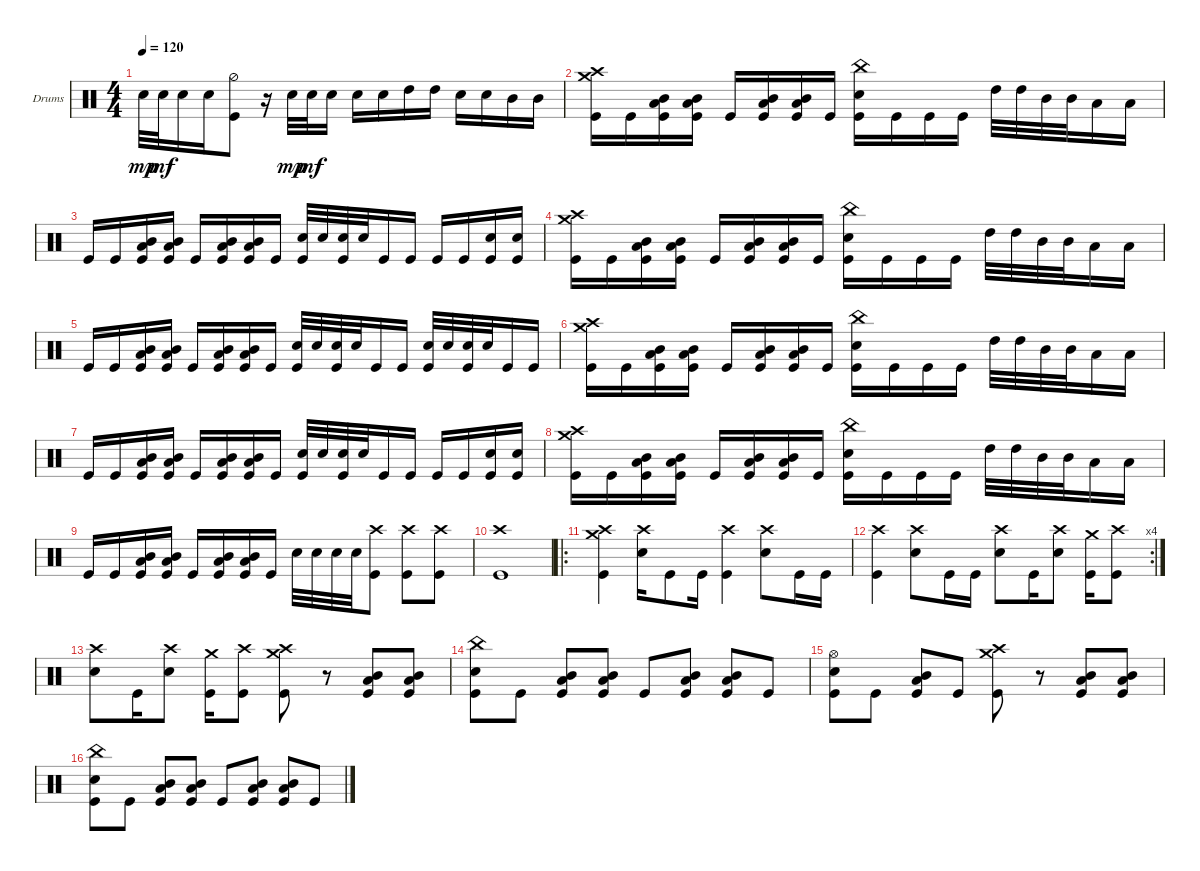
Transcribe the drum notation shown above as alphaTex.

\defaultSystemsLayout 4
\bracketExtendMode groupsimilarinstruments
\firstSystemTrackNameOrientation horizontal
\otherSystemsTrackNameOrientation horizontal
\track ("Drumkit" "Drums") {instrument percussion}
\staff {score}
\articulation defaults
\ts (4 4)
\tempo 120
\clef neutral
\ks c "Snare (hit) 2".32{dy mp} "Snare (hit) 2".32{dy mf} "Snare (hit) 2".16 "Snare (hit) 2".16
("Kick (hit)" "Hi-Hat (half)").8 r.16 "Snare (hit) 2".32{dy mp} "Snare (hit) 2".32{dy mf} "Snare (hit) 2".16 "Snare (hit) 2".16 "Snare (hit) 2".16 "High Tom (hit)".16 "High Tom (hit)".16 "Snare (hit) 2".16 "Snare (hit) 2".16 "Mid Tom (hit)".16 "Mid Tom (hit)".16 |
("Crash high (hit)" "Crash medium (hit)" "Kick (hit)").16 "Kick (hit)".16 ("Kick (hit)" "Mid Tom (hit)" "Low Tom (hit)").16 ("Kick (hit)" "Mid Tom (hit)" "Low Tom (hit)").16 "Kick (hit)".16 ("Kick (hit)" "Mid Tom (hit)" "Low Tom (hit)").16 ("Kick (hit)" "Mid Tom (hit)" "Low Tom (hit)").16 "Kick (hit)".16 ("Kick (hit)" "China (hit)" "Snare (hit) 2").16 "Kick (hit)".16 "Kick (hit)".16 "Kick (hit)".16 "High Tom (hit)".32 "High Tom (hit)".32 "Mid Tom (hit)".32 "Mid Tom (hit)".32 "Low Tom (hit)".16 "Low Tom (hit)".16 |
"Kick (hit)".16 "Kick (hit)".16 ("Kick (hit)" "Mid Tom (hit)" "Low Tom (hit)").16 ("Kick (hit)" "Mid Tom (hit)" "Low Tom (hit)").16 "Kick (hit)".16 ("Kick (hit)" "Mid Tom (hit)" "Low Tom (hit)").16 ("Kick (hit)" "Mid Tom (hit)" "Low Tom (hit)").16 "Kick (hit)".16 ("Snare (hit) 2" "Kick (hit)").32 "Snare (hit) 2".32 ("Snare (hit) 2" "Kick (hit)").32 "Snare (hit) 2".32 "Kick (hit)".16 "Kick (hit)".16 "Kick (hit)".16 "Kick (hit)".16 ("Kick (hit)" "Snare (hit) 2").16 ("Kick (hit)" "Snare (hit) 2").16 |
("Crash high (hit)" "Crash medium (hit)" "Kick (hit)").16 "Kick (hit)".16 ("Kick (hit)" "Mid Tom (hit)" "Low Tom (hit)").16 ("Kick (hit)" "Mid Tom (hit)" "Low Tom (hit)").16 "Kick (hit)".16 ("Kick (hit)" "Mid Tom (hit)" "Low Tom (hit)").16 ("Kick (hit)" "Mid Tom (hit)" "Low Tom (hit)").16 "Kick (hit)".16 ("Kick (hit)" "China (hit)" "Snare (hit) 2").16 "Kick (hit)".16 "Kick (hit)".16 "Kick (hit)".16 "High Tom (hit)".32 "High Tom (hit)".32 "Mid Tom (hit)".32 "Mid Tom (hit)".32 "Low Tom (hit)".16 "Low Tom (hit)".16 |
"Kick (hit)".16 "Kick (hit)".16 ("Kick (hit)" "Mid Tom (hit)" "Low Tom (hit)").16 ("Kick (hit)" "Mid Tom (hit)" "Low Tom (hit)").16 "Kick (hit)".16 ("Kick (hit)" "Mid Tom (hit)" "Low Tom (hit)").16 ("Kick (hit)" "Mid Tom (hit)" "Low Tom (hit)").16 "Kick (hit)".16 ("Snare (hit) 2" "Kick (hit)").32 "Snare (hit) 2".32 ("Snare (hit) 2" "Kick (hit)").32 "Snare (hit) 2".32 "Kick (hit)".16 "Kick (hit)".16 ("Snare (hit) 2" "Kick (hit)").32 "Snare (hit) 2".32 ("Snare (hit) 2" "Kick (hit)").32 "Snare (hit) 2".32 "Kick (hit)".16 "Kick (hit)".16 |
("Crash high (hit)" "Crash medium (hit)" "Kick (hit)").16 "Kick (hit)".16 ("Kick (hit)" "Mid Tom (hit)" "Low Tom (hit)").16 ("Kick (hit)" "Mid Tom (hit)" "Low Tom (hit)").16 "Kick (hit)".16 ("Kick (hit)" "Mid Tom (hit)" "Low Tom (hit)").16 ("Kick (hit)" "Mid Tom (hit)" "Low Tom (hit)").16 "Kick (hit)".16 ("Kick (hit)" "China (hit)" "Snare (hit) 2").16 "Kick (hit)".16 "Kick (hit)".16 "Kick (hit)".16 "High Tom (hit)".32 "High Tom (hit)".32 "Mid Tom (hit)".32 "Mid Tom (hit)".32 "Low Tom (hit)".16 "Low Tom (hit)".16 |
"Kick (hit)".16 "Kick (hit)".16 ("Kick (hit)" "Mid Tom (hit)" "Low Tom (hit)").16 ("Kick (hit)" "Mid Tom (hit)" "Low Tom (hit)").16 "Kick (hit)".16 ("Kick (hit)" "Mid Tom (hit)" "Low Tom (hit)").16 ("Kick (hit)" "Mid Tom (hit)" "Low Tom (hit)").16 "Kick (hit)".16 ("Snare (hit) 2" "Kick (hit)").32 "Snare (hit) 2".32 ("Snare (hit) 2" "Kick (hit)").32 "Snare (hit) 2".32 "Kick (hit)".16 "Kick (hit)".16 "Kick (hit)".16 "Kick (hit)".16 ("Kick (hit)" "Snare (hit) 2").16 ("Kick (hit)" "Snare (hit) 2").16 |
("Crash high (hit)" "Crash medium (hit)" "Kick (hit)").16 "Kick (hit)".16 ("Kick (hit)" "Mid Tom (hit)" "Low Tom (hit)").16 ("Kick (hit)" "Mid Tom (hit)" "Low Tom (hit)").16 "Kick (hit)".16 ("Kick (hit)" "Mid Tom (hit)" "Low Tom (hit)").16 ("Kick (hit)" "Mid Tom (hit)" "Low Tom (hit)").16 "Kick (hit)".16 ("Kick (hit)" "China (hit)" "Snare (hit) 2").16 "Kick (hit)".16 "Kick (hit)".16 "Kick (hit)".16 "High Tom (hit)".32 "High Tom (hit)".32 "Mid Tom (hit)".32 "Mid Tom (hit)".32 "Low Tom (hit)".16 "Low Tom (hit)".16 |
"Kick (hit)".16 "Kick (hit)".16 ("Kick (hit)" "Mid Tom (hit)" "Low Tom (hit)").16 ("Kick (hit)" "Mid Tom (hit)" "Low Tom (hit)").16 "Kick (hit)".16 ("Kick (hit)" "Mid Tom (hit)" "Low Tom (hit)").16 ("Kick (hit)" "Mid Tom (hit)" "Low Tom (hit)").16 "Kick (hit)".16 "Snare (hit) 2".32 "Snare (hit) 2".32 "Snare (hit) 2".32 "Snare (hit) 2".32 ("Kick (hit)" "Crash high (hit)").8 ("Kick (hit)" "Crash high (hit)").8 ("Kick (hit)" "Crash high (hit)").8 |
("Kick (hit)" "Crash high (hit)").1 |
\ro
("Crash high (hit)" "Crash medium (hit)" "Kick (hit)").4 ("Crash high (hit)" "Snare (hit) 2").16 "Kick (hit)".8 "Kick (hit)".16 ("Kick (hit)" "Crash high (hit)").4 ("Crash high (hit)" "Snare (hit) 2").8 "Kick (hit)".16 "Kick (hit)".16 |
\rc 4
("Crash high (hit)" "Kick (hit)").4 ("Crash high (hit)" "Snare (hit) 2").8 "Kick (hit)".16 "Kick (hit)".16 ("Crash high (hit)" "Snare (hit) 2").8 "Kick (hit)".16 ("Snare (hit) 2" "Crash high (hit)").8 ("Kick (hit)" "Crash medium (hit)").16 ("Kick (hit)" "Crash high (hit)").8 |
("Crash high (hit)" "Snare (hit) 2").8 "Kick (hit)".16 ("Snare (hit) 2" "Crash high (hit)").8 ("Kick (hit)" "Crash medium (hit)").16 ("Kick (hit)" "Crash high (hit)").8 ("Kick (hit)" "Crash high (hit)" "Crash medium (hit)").8 r.8 ("Kick (hit)" "Low Tom (hit)" "Mid Tom (hit)").8 ("Kick (hit)" "Mid Tom (hit)" "Low Tom (hit)").8 |
("Kick (hit)" "China (hit)" "Snare (hit) 2").8 "Kick (hit)".8 ("Kick (hit)" "Low Tom (hit)" "Mid Tom (hit)").8 ("Kick (hit)" "Mid Tom (hit)" "Low Tom (hit)").8 "Kick (hit)".8 ("Kick (hit)" "Mid Tom (hit)" "Low Tom (hit)").8 ("Kick (hit)" "Mid Tom (hit)" "Low Tom (hit)").8 "Kick (hit)".8 |
("Kick (hit)" "Snare (hit) 2" "Hi-Hat (open)").8 "Kick (hit)".8 ("Kick (hit)" "Mid Tom (hit)" "Low Tom (hit)").8 "Kick (hit)".8 ("Kick (hit)" "Crash high (hit)" "Crash medium (hit)").8 r.8 ("Kick (hit)" "Mid Tom (hit)" "Low Tom (hit)").8 ("Kick (hit)" "Low Tom (hit)" "Mid Tom (hit)").8 |
("Kick (hit)" "China (hit)" "Snare (hit) 2").8 "Kick (hit)".8 ("Kick (hit)" "Low Tom (hit)" "Mid Tom (hit)").8 ("Kick (hit)" "Mid Tom (hit)" "Low Tom (hit)").8 "Kick (hit)".8 ("Kick (hit)" "Mid Tom (hit)" "Low Tom (hit)").8 ("Kick (hit)" "Mid Tom (hit)" "Low Tom (hit)").8 "Kick (hit)".8
